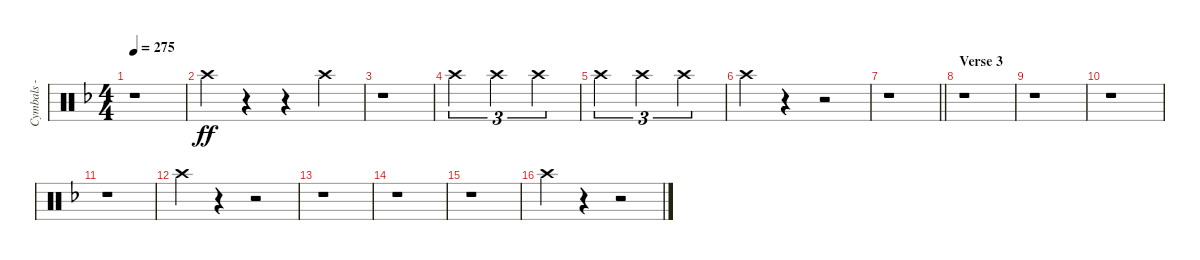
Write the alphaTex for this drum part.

\track ("Cymbals - crash" "Cymbals - ") {instrument percussion}
\staff {score}
\articulation defaults
\ts (4 4)
\tempo 275
\clef neutral
\ks dminor
r.1{dy ff} |
"Crash high (hit)".4 r.4 r.4 "Crash high (hit)".4 |
r.1 |
"Crash high (hit)".2{tu (3 2)} "Crash high (hit)".2{tu (3 2)} "Crash high (hit)".2{tu (3 2)} |
"Crash high (hit)".2{tu (3 2)} "Crash high (hit)".2{tu (3 2)} "Crash high (hit)".2{tu (3 2)} |
"Crash high (hit)".4 r.4 r.2 |
\barLineRight lightlight
r.1 |
\section ("" "Verse 3")
r.1 |
r.1 |
r.1 |
r.1 |
"Crash high (hit)".4 r.4 r.2 |
r.1 |
r.1 |
r.1 |
"Crash high (hit)".4 r.4 r.2
